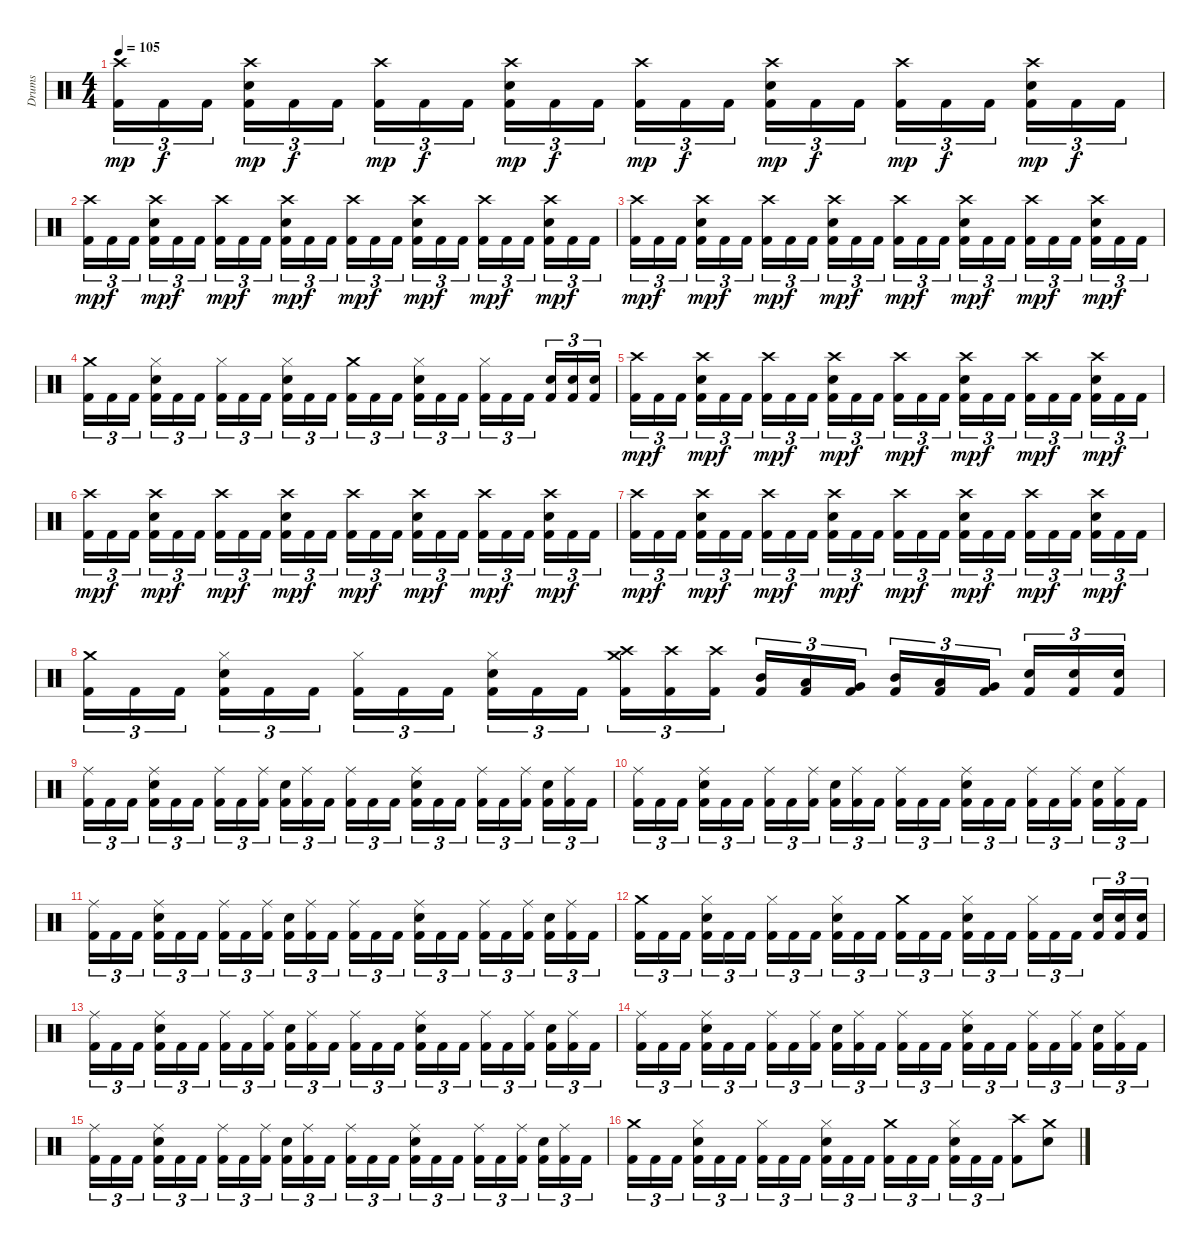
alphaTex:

\track ("Drums" "Drums") {instrument percussion}
\staff {score}
\articulation defaults
\ts (4 4)
\tempo 105
\clef neutral
\ks c
("Crash high (hit)" "Kick (hit) 2").16{tu (3 2) dy mp} "Kick (hit) 2".16{tu (3 2) dy f} "Kick (hit) 2".16{tu (3 2)} ("Crash high (hit)" "Electric Snare (hit)" "Kick (hit) 2").16{tu (3 2) dy mp} "Kick (hit) 2".16{tu (3 2) dy f} "Kick (hit) 2".16{tu (3 2)} ("Crash high (hit)" "Kick (hit) 2").16{tu (3 2) dy mp} "Kick (hit) 2".16{tu (3 2) dy f} "Kick (hit) 2".16{tu (3 2)} ("Crash high (hit)" "Electric Snare (hit)" "Kick (hit) 2").16{tu (3 2) dy mp} "Kick (hit) 2".16{tu (3 2) dy f} "Kick (hit) 2".16{tu (3 2)} ("Crash high (hit)" "Kick (hit) 2").16{tu (3 2) dy mp} "Kick (hit) 2".16{tu (3 2) dy f} "Kick (hit) 2".16{tu (3 2)} ("Crash high (hit)" "Electric Snare (hit)" "Kick (hit) 2").16{tu (3 2) dy mp} "Kick (hit) 2".16{tu (3 2) dy f} "Kick (hit) 2".16{tu (3 2)} ("Crash high (hit)" "Kick (hit) 2").16{tu (3 2) dy mp} "Kick (hit) 2".16{tu (3 2) dy f} "Kick (hit) 2".16{tu (3 2)} ("Crash high (hit)" "Electric Snare (hit)" "Kick (hit) 2").16{tu (3 2) dy mp} "Kick (hit) 2".16{tu (3 2) dy f} "Kick (hit) 2".16{tu (3 2)} |
("Crash high (hit)" "Kick (hit) 2").16{tu (3 2) dy mp} "Kick (hit) 2".16{tu (3 2) dy f} "Kick (hit) 2".16{tu (3 2)} ("Crash high (hit)" "Electric Snare (hit)" "Kick (hit) 2").16{tu (3 2) dy mp} "Kick (hit) 2".16{tu (3 2) dy f} "Kick (hit) 2".16{tu (3 2)} ("Crash high (hit)" "Kick (hit) 2").16{tu (3 2) dy mp} "Kick (hit) 2".16{tu (3 2) dy f} "Kick (hit) 2".16{tu (3 2)} ("Crash high (hit)" "Electric Snare (hit)" "Kick (hit) 2").16{tu (3 2) dy mp} "Kick (hit) 2".16{tu (3 2) dy f} "Kick (hit) 2".16{tu (3 2)} ("Crash high (hit)" "Kick (hit) 2").16{tu (3 2) dy mp} "Kick (hit) 2".16{tu (3 2) dy f} "Kick (hit) 2".16{tu (3 2)} ("Crash high (hit)" "Electric Snare (hit)" "Kick (hit) 2").16{tu (3 2) dy mp} "Kick (hit) 2".16{tu (3 2) dy f} "Kick (hit) 2".16{tu (3 2)} ("Crash high (hit)" "Kick (hit) 2").16{tu (3 2) dy mp} "Kick (hit) 2".16{tu (3 2) dy f} "Kick (hit) 2".16{tu (3 2)} ("Crash high (hit)" "Electric Snare (hit)" "Kick (hit) 2").16{tu (3 2) dy mp} "Kick (hit) 2".16{tu (3 2) dy f} "Kick (hit) 2".16{tu (3 2)} |
("Crash high (hit)" "Kick (hit) 2").16{tu (3 2) dy mp} "Kick (hit) 2".16{tu (3 2) dy f} "Kick (hit) 2".16{tu (3 2)} ("Crash high (hit)" "Electric Snare (hit)" "Kick (hit) 2").16{tu (3 2) dy mp} "Kick (hit) 2".16{tu (3 2) dy f} "Kick (hit) 2".16{tu (3 2)} ("Crash high (hit)" "Kick (hit) 2").16{tu (3 2) dy mp} "Kick (hit) 2".16{tu (3 2) dy f} "Kick (hit) 2".16{tu (3 2)} ("Crash high (hit)" "Electric Snare (hit)" "Kick (hit) 2").16{tu (3 2) dy mp} "Kick (hit) 2".16{tu (3 2) dy f} "Kick (hit) 2".16{tu (3 2)} ("Crash high (hit)" "Kick (hit) 2").16{tu (3 2) dy mp} "Kick (hit) 2".16{tu (3 2) dy f} "Kick (hit) 2".16{tu (3 2)} ("Crash high (hit)" "Electric Snare (hit)" "Kick (hit) 2").16{tu (3 2) dy mp} "Kick (hit) 2".16{tu (3 2) dy f} "Kick (hit) 2".16{tu (3 2)} ("Crash high (hit)" "Kick (hit) 2").16{tu (3 2) dy mp} "Kick (hit) 2".16{tu (3 2) dy f} "Kick (hit) 2".16{tu (3 2)} ("Crash high (hit)" "Electric Snare (hit)" "Kick (hit) 2").16{tu (3 2) dy mp} "Kick (hit) 2".16{tu (3 2) dy f} "Kick (hit) 2".16{tu (3 2)} |
("Crash medium (hit)" "Kick (hit) 2").16{tu (3 2)} "Kick (hit) 2".16{tu (3 2)} "Kick (hit) 2".16{tu (3 2)} ("Hi-Hat (closed)" "Electric Snare (hit)" "Kick (hit) 2").16{tu (3 2)} "Kick (hit) 2".16{tu (3 2)} "Kick (hit) 2".16{tu (3 2)} ("Hi-Hat (closed)" "Kick (hit) 2").16{tu (3 2)} "Kick (hit) 2".16{tu (3 2)} "Kick (hit) 2".16{tu (3 2)} ("Hi-Hat (closed)" "Electric Snare (hit)" "Kick (hit) 2").16{tu (3 2)} "Kick (hit) 2".16{tu (3 2)} "Kick (hit) 2".16{tu (3 2)} ("Crash medium (hit)" "Kick (hit) 2").16{tu (3 2)} "Kick (hit) 2".16{tu (3 2)} "Kick (hit) 2".16{tu (3 2)} ("Hi-Hat (closed)" "Electric Snare (hit)" "Kick (hit) 2").16{tu (3 2)} "Kick (hit) 2".16{tu (3 2)} "Kick (hit) 2".16{tu (3 2)} ("Hi-Hat (closed)" "Kick (hit) 2").16{tu (3 2)} "Kick (hit) 2".16{tu (3 2)} "Kick (hit) 2".16{tu (3 2)} ("Electric Snare (hit)" "Kick (hit) 2").16{tu (3 2)} ("Electric Snare (hit)" "Kick (hit) 2").16{tu (3 2)} ("Electric Snare (hit)" "Kick (hit) 2").16{tu (3 2)} |
("Crash high (hit)" "Kick (hit) 2").16{tu (3 2) dy mp} "Kick (hit) 2".16{tu (3 2) dy f} "Kick (hit) 2".16{tu (3 2)} ("Crash high (hit)" "Electric Snare (hit)" "Kick (hit) 2").16{tu (3 2) dy mp} "Kick (hit) 2".16{tu (3 2) dy f} "Kick (hit) 2".16{tu (3 2)} ("Crash high (hit)" "Kick (hit) 2").16{tu (3 2) dy mp} "Kick (hit) 2".16{tu (3 2) dy f} "Kick (hit) 2".16{tu (3 2)} ("Crash high (hit)" "Electric Snare (hit)" "Kick (hit) 2").16{tu (3 2) dy mp} "Kick (hit) 2".16{tu (3 2) dy f} "Kick (hit) 2".16{tu (3 2)} ("Crash high (hit)" "Kick (hit) 2").16{tu (3 2) dy mp} "Kick (hit) 2".16{tu (3 2) dy f} "Kick (hit) 2".16{tu (3 2)} ("Crash high (hit)" "Electric Snare (hit)" "Kick (hit) 2").16{tu (3 2) dy mp} "Kick (hit) 2".16{tu (3 2) dy f} "Kick (hit) 2".16{tu (3 2)} ("Crash high (hit)" "Kick (hit) 2").16{tu (3 2) dy mp} "Kick (hit) 2".16{tu (3 2) dy f} "Kick (hit) 2".16{tu (3 2)} ("Crash high (hit)" "Electric Snare (hit)" "Kick (hit) 2").16{tu (3 2) dy mp} "Kick (hit) 2".16{tu (3 2) dy f} "Kick (hit) 2".16{tu (3 2)} |
("Crash high (hit)" "Kick (hit) 2").16{tu (3 2) dy mp} "Kick (hit) 2".16{tu (3 2) dy f} "Kick (hit) 2".16{tu (3 2)} ("Crash high (hit)" "Electric Snare (hit)" "Kick (hit) 2").16{tu (3 2) dy mp} "Kick (hit) 2".16{tu (3 2) dy f} "Kick (hit) 2".16{tu (3 2)} ("Crash high (hit)" "Kick (hit) 2").16{tu (3 2) dy mp} "Kick (hit) 2".16{tu (3 2) dy f} "Kick (hit) 2".16{tu (3 2)} ("Crash high (hit)" "Electric Snare (hit)" "Kick (hit) 2").16{tu (3 2) dy mp} "Kick (hit) 2".16{tu (3 2) dy f} "Kick (hit) 2".16{tu (3 2)} ("Crash high (hit)" "Kick (hit) 2").16{tu (3 2) dy mp} "Kick (hit) 2".16{tu (3 2) dy f} "Kick (hit) 2".16{tu (3 2)} ("Crash high (hit)" "Electric Snare (hit)" "Kick (hit) 2").16{tu (3 2) dy mp} "Kick (hit) 2".16{tu (3 2) dy f} "Kick (hit) 2".16{tu (3 2)} ("Crash high (hit)" "Kick (hit) 2").16{tu (3 2) dy mp} "Kick (hit) 2".16{tu (3 2) dy f} "Kick (hit) 2".16{tu (3 2)} ("Crash high (hit)" "Electric Snare (hit)" "Kick (hit) 2").16{tu (3 2) dy mp} "Kick (hit) 2".16{tu (3 2) dy f} "Kick (hit) 2".16{tu (3 2)} |
("Crash high (hit)" "Kick (hit) 2").16{tu (3 2) dy mp} "Kick (hit) 2".16{tu (3 2) dy f} "Kick (hit) 2".16{tu (3 2)} ("Crash high (hit)" "Electric Snare (hit)" "Kick (hit) 2").16{tu (3 2) dy mp} "Kick (hit) 2".16{tu (3 2) dy f} "Kick (hit) 2".16{tu (3 2)} ("Crash high (hit)" "Kick (hit) 2").16{tu (3 2) dy mp} "Kick (hit) 2".16{tu (3 2) dy f} "Kick (hit) 2".16{tu (3 2)} ("Crash high (hit)" "Electric Snare (hit)" "Kick (hit) 2").16{tu (3 2) dy mp} "Kick (hit) 2".16{tu (3 2) dy f} "Kick (hit) 2".16{tu (3 2)} ("Crash high (hit)" "Kick (hit) 2").16{tu (3 2) dy mp} "Kick (hit) 2".16{tu (3 2) dy f} "Kick (hit) 2".16{tu (3 2)} ("Crash high (hit)" "Electric Snare (hit)" "Kick (hit) 2").16{tu (3 2) dy mp} "Kick (hit) 2".16{tu (3 2) dy f} "Kick (hit) 2".16{tu (3 2)} ("Crash high (hit)" "Kick (hit) 2").16{tu (3 2) dy mp} "Kick (hit) 2".16{tu (3 2) dy f} "Kick (hit) 2".16{tu (3 2)} ("Crash high (hit)" "Electric Snare (hit)" "Kick (hit) 2").16{tu (3 2) dy mp} "Kick (hit) 2".16{tu (3 2) dy f} "Kick (hit) 2".16{tu (3 2)} |
("Crash medium (hit)" "Kick (hit) 2").16{tu (3 2)} "Kick (hit) 2".16{tu (3 2)} "Kick (hit) 2".16{tu (3 2)} ("Hi-Hat (closed)" "Electric Snare (hit)" "Kick (hit) 2").16{tu (3 2)} "Kick (hit) 2".16{tu (3 2)} "Kick (hit) 2".16{tu (3 2)} ("Hi-Hat (closed)" "Kick (hit) 2").16{tu (3 2)} "Kick (hit) 2".16{tu (3 2)} "Kick (hit) 2".16{tu (3 2)} ("Hi-Hat (closed)" "Electric Snare (hit)" "Kick (hit) 2").16{tu (3 2)} "Kick (hit) 2".16{tu (3 2)} "Kick (hit) 2".16{tu (3 2)} ("Crash medium (hit)" "Crash high (hit)" "Kick (hit) 2").16{tu (3 2)} ("Crash high (hit)" "Kick (hit) 2").16{tu (3 2)} ("Crash high (hit)" "Kick (hit) 2").16{tu (3 2)} ("Mid Tom (hit)" "Kick (hit) 2").16{tu (3 2)} ("Low Tom (hit)" "Kick (hit) 2").16{tu (3 2)} ("Very Low Tom (hit)" "Kick (hit) 2").16{tu (3 2)} ("Mid Tom (hit)" "Kick (hit) 2").16{tu (3 2)} ("Low Tom (hit)" "Kick (hit) 2").16{tu (3 2)} ("Very Low Tom (hit)" "Kick (hit) 2").16{tu (3 2)} ("Electric Snare (hit)" "Kick (hit) 2").16{tu (3 2)} ("Electric Snare (hit)" "Kick (hit) 2").16{tu (3 2)} ("Electric Snare (hit)" "Kick (hit) 2").16{tu (3 2)} |
("Ride (middle)" "Kick (hit) 2").16{tu (3 2)} "Kick (hit) 2".16{tu (3 2)} "Kick (hit) 2".16{tu (3 2)} ("Ride (middle)" "Electric Snare (hit)" "Kick (hit) 2").16{tu (3 2)} "Kick (hit) 2".16{tu (3 2)} "Kick (hit) 2".16{tu (3 2)} ("Ride (middle)" "Kick (hit) 2").16{tu (3 2)} "Kick (hit) 2".16{tu (3 2)} ("Ride (middle)" "Kick (hit) 2").16{tu (3 2)} ("Electric Snare (hit)" "Kick (hit) 2").16{tu (3 2)} ("Ride (middle)" "Kick (hit) 2").16{tu (3 2)} "Kick (hit) 2".16{tu (3 2)} ("Ride (middle)" "Kick (hit) 2").16{tu (3 2)} "Kick (hit) 2".16{tu (3 2)} "Kick (hit) 2".16{tu (3 2)} ("Ride (middle)" "Electric Snare (hit)" "Kick (hit) 2").16{tu (3 2)} "Kick (hit) 2".16{tu (3 2)} "Kick (hit) 2".16{tu (3 2)} ("Ride (middle)" "Kick (hit) 2").16{tu (3 2)} "Kick (hit) 2".16{tu (3 2)} ("Ride (middle)" "Kick (hit) 2").16{tu (3 2)} ("Electric Snare (hit)" "Kick (hit) 2").16{tu (3 2)} ("Ride (middle)" "Kick (hit) 2").16{tu (3 2)} "Kick (hit) 2".16{tu (3 2)} |
("Ride (middle)" "Kick (hit) 2").16{tu (3 2)} "Kick (hit) 2".16{tu (3 2)} "Kick (hit) 2".16{tu (3 2)} ("Ride (middle)" "Electric Snare (hit)" "Kick (hit) 2").16{tu (3 2)} "Kick (hit) 2".16{tu (3 2)} "Kick (hit) 2".16{tu (3 2)} ("Ride (middle)" "Kick (hit) 2").16{tu (3 2)} "Kick (hit) 2".16{tu (3 2)} ("Ride (middle)" "Kick (hit) 2").16{tu (3 2)} ("Electric Snare (hit)" "Kick (hit) 2").16{tu (3 2)} ("Ride (middle)" "Kick (hit) 2").16{tu (3 2)} "Kick (hit) 2".16{tu (3 2)} ("Ride (middle)" "Kick (hit) 2").16{tu (3 2)} "Kick (hit) 2".16{tu (3 2)} "Kick (hit) 2".16{tu (3 2)} ("Ride (middle)" "Electric Snare (hit)" "Kick (hit) 2").16{tu (3 2)} "Kick (hit) 2".16{tu (3 2)} "Kick (hit) 2".16{tu (3 2)} ("Ride (middle)" "Kick (hit) 2").16{tu (3 2)} "Kick (hit) 2".16{tu (3 2)} ("Ride (middle)" "Kick (hit) 2").16{tu (3 2)} ("Electric Snare (hit)" "Kick (hit) 2").16{tu (3 2)} ("Ride (middle)" "Kick (hit) 2").16{tu (3 2)} "Kick (hit) 2".16{tu (3 2)} |
("Ride (middle)" "Kick (hit) 2").16{tu (3 2)} "Kick (hit) 2".16{tu (3 2)} "Kick (hit) 2".16{tu (3 2)} ("Ride (middle)" "Electric Snare (hit)" "Kick (hit) 2").16{tu (3 2)} "Kick (hit) 2".16{tu (3 2)} "Kick (hit) 2".16{tu (3 2)} ("Ride (middle)" "Kick (hit) 2").16{tu (3 2)} "Kick (hit) 2".16{tu (3 2)} ("Ride (middle)" "Kick (hit) 2").16{tu (3 2)} ("Electric Snare (hit)" "Kick (hit) 2").16{tu (3 2)} ("Ride (middle)" "Kick (hit) 2").16{tu (3 2)} "Kick (hit) 2".16{tu (3 2)} ("Ride (middle)" "Kick (hit) 2").16{tu (3 2)} "Kick (hit) 2".16{tu (3 2)} "Kick (hit) 2".16{tu (3 2)} ("Ride (middle)" "Electric Snare (hit)" "Kick (hit) 2").16{tu (3 2)} "Kick (hit) 2".16{tu (3 2)} "Kick (hit) 2".16{tu (3 2)} ("Ride (middle)" "Kick (hit) 2").16{tu (3 2)} "Kick (hit) 2".16{tu (3 2)} ("Ride (middle)" "Kick (hit) 2").16{tu (3 2)} ("Electric Snare (hit)" "Kick (hit) 2").16{tu (3 2)} ("Ride (middle)" "Kick (hit) 2").16{tu (3 2)} "Kick (hit) 2".16{tu (3 2)} |
("Crash medium (hit)" "Kick (hit) 2").16{tu (3 2)} "Kick (hit) 2".16{tu (3 2)} "Kick (hit) 2".16{tu (3 2)} ("Hi-Hat (closed)" "Electric Snare (hit)" "Kick (hit) 2").16{tu (3 2)} "Kick (hit) 2".16{tu (3 2)} "Kick (hit) 2".16{tu (3 2)} ("Hi-Hat (closed)" "Kick (hit) 2").16{tu (3 2)} "Kick (hit) 2".16{tu (3 2)} "Kick (hit) 2".16{tu (3 2)} ("Hi-Hat (closed)" "Electric Snare (hit)" "Kick (hit) 2").16{tu (3 2)} "Kick (hit) 2".16{tu (3 2)} "Kick (hit) 2".16{tu (3 2)} ("Crash medium (hit)" "Kick (hit) 2").16{tu (3 2)} "Kick (hit) 2".16{tu (3 2)} "Kick (hit) 2".16{tu (3 2)} ("Hi-Hat (closed)" "Electric Snare (hit)" "Kick (hit) 2").16{tu (3 2)} "Kick (hit) 2".16{tu (3 2)} "Kick (hit) 2".16{tu (3 2)} ("Hi-Hat (closed)" "Kick (hit) 2").16{tu (3 2)} "Kick (hit) 2".16{tu (3 2)} "Kick (hit) 2".16{tu (3 2)} ("Electric Snare (hit)" "Kick (hit) 2").16{tu (3 2)} ("Electric Snare (hit)" "Kick (hit) 2").16{tu (3 2)} ("Electric Snare (hit)" "Kick (hit) 2").16{tu (3 2)} |
("Ride (middle)" "Kick (hit) 2").16{tu (3 2)} "Kick (hit) 2".16{tu (3 2)} "Kick (hit) 2".16{tu (3 2)} ("Ride (middle)" "Electric Snare (hit)" "Kick (hit) 2").16{tu (3 2)} "Kick (hit) 2".16{tu (3 2)} "Kick (hit) 2".16{tu (3 2)} ("Ride (middle)" "Kick (hit) 2").16{tu (3 2)} "Kick (hit) 2".16{tu (3 2)} ("Ride (middle)" "Kick (hit) 2").16{tu (3 2)} ("Electric Snare (hit)" "Kick (hit) 2").16{tu (3 2)} ("Ride (middle)" "Kick (hit) 2").16{tu (3 2)} "Kick (hit) 2".16{tu (3 2)} ("Ride (middle)" "Kick (hit) 2").16{tu (3 2)} "Kick (hit) 2".16{tu (3 2)} "Kick (hit) 2".16{tu (3 2)} ("Ride (middle)" "Electric Snare (hit)" "Kick (hit) 2").16{tu (3 2)} "Kick (hit) 2".16{tu (3 2)} "Kick (hit) 2".16{tu (3 2)} ("Ride (middle)" "Kick (hit) 2").16{tu (3 2)} "Kick (hit) 2".16{tu (3 2)} ("Ride (middle)" "Kick (hit) 2").16{tu (3 2)} ("Electric Snare (hit)" "Kick (hit) 2").16{tu (3 2)} ("Ride (middle)" "Kick (hit) 2").16{tu (3 2)} "Kick (hit) 2".16{tu (3 2)} |
("Ride (middle)" "Kick (hit) 2").16{tu (3 2)} "Kick (hit) 2".16{tu (3 2)} "Kick (hit) 2".16{tu (3 2)} ("Ride (middle)" "Electric Snare (hit)" "Kick (hit) 2").16{tu (3 2)} "Kick (hit) 2".16{tu (3 2)} "Kick (hit) 2".16{tu (3 2)} ("Ride (middle)" "Kick (hit) 2").16{tu (3 2)} "Kick (hit) 2".16{tu (3 2)} ("Ride (middle)" "Kick (hit) 2").16{tu (3 2)} ("Electric Snare (hit)" "Kick (hit) 2").16{tu (3 2)} ("Ride (middle)" "Kick (hit) 2").16{tu (3 2)} "Kick (hit) 2".16{tu (3 2)} ("Ride (middle)" "Kick (hit) 2").16{tu (3 2)} "Kick (hit) 2".16{tu (3 2)} "Kick (hit) 2".16{tu (3 2)} ("Ride (middle)" "Electric Snare (hit)" "Kick (hit) 2").16{tu (3 2)} "Kick (hit) 2".16{tu (3 2)} "Kick (hit) 2".16{tu (3 2)} ("Ride (middle)" "Kick (hit) 2").16{tu (3 2)} "Kick (hit) 2".16{tu (3 2)} ("Ride (middle)" "Kick (hit) 2").16{tu (3 2)} ("Electric Snare (hit)" "Kick (hit) 2").16{tu (3 2)} ("Ride (middle)" "Kick (hit) 2").16{tu (3 2)} "Kick (hit) 2".16{tu (3 2)} |
("Ride (middle)" "Kick (hit) 2").16{tu (3 2)} "Kick (hit) 2".16{tu (3 2)} "Kick (hit) 2".16{tu (3 2)} ("Ride (middle)" "Electric Snare (hit)" "Kick (hit) 2").16{tu (3 2)} "Kick (hit) 2".16{tu (3 2)} "Kick (hit) 2".16{tu (3 2)} ("Ride (middle)" "Kick (hit) 2").16{tu (3 2)} "Kick (hit) 2".16{tu (3 2)} ("Ride (middle)" "Kick (hit) 2").16{tu (3 2)} ("Electric Snare (hit)" "Kick (hit) 2").16{tu (3 2)} ("Ride (middle)" "Kick (hit) 2").16{tu (3 2)} "Kick (hit) 2".16{tu (3 2)} ("Ride (middle)" "Kick (hit) 2").16{tu (3 2)} "Kick (hit) 2".16{tu (3 2)} "Kick (hit) 2".16{tu (3 2)} ("Ride (middle)" "Electric Snare (hit)" "Kick (hit) 2").16{tu (3 2)} "Kick (hit) 2".16{tu (3 2)} "Kick (hit) 2".16{tu (3 2)} ("Ride (middle)" "Kick (hit) 2").16{tu (3 2)} "Kick (hit) 2".16{tu (3 2)} ("Ride (middle)" "Kick (hit) 2").16{tu (3 2)} ("Electric Snare (hit)" "Kick (hit) 2").16{tu (3 2)} ("Ride (middle)" "Kick (hit) 2").16{tu (3 2)} "Kick (hit) 2".16{tu (3 2)} |
("Crash medium (hit)" "Kick (hit) 2").16{tu (3 2)} "Kick (hit) 2".16{tu (3 2)} "Kick (hit) 2".16{tu (3 2)} ("Hi-Hat (closed)" "Electric Snare (hit)" "Kick (hit) 2").16{tu (3 2)} "Kick (hit) 2".16{tu (3 2)} "Kick (hit) 2".16{tu (3 2)} ("Hi-Hat (closed)" "Kick (hit) 2").16{tu (3 2)} "Kick (hit) 2".16{tu (3 2)} "Kick (hit) 2".16{tu (3 2)} ("Hi-Hat (closed)" "Electric Snare (hit)" "Kick (hit) 2").16{tu (3 2)} "Kick (hit) 2".16{tu (3 2)} "Kick (hit) 2".16{tu (3 2)} ("Crash medium (hit)" "Kick (hit) 2").16{tu (3 2)} "Kick (hit) 2".16{tu (3 2)} "Kick (hit) 2".16{tu (3 2)} ("Hi-Hat (closed)" "Electric Snare (hit)" "Kick (hit) 2").16{tu (3 2)} "Kick (hit) 2".16{tu (3 2)} "Kick (hit) 2".16{tu (3 2)} ("Crash high (hit)" "Kick (hit) 2").8 ("Crash medium (hit)" "Electric Snare (hit)").8
